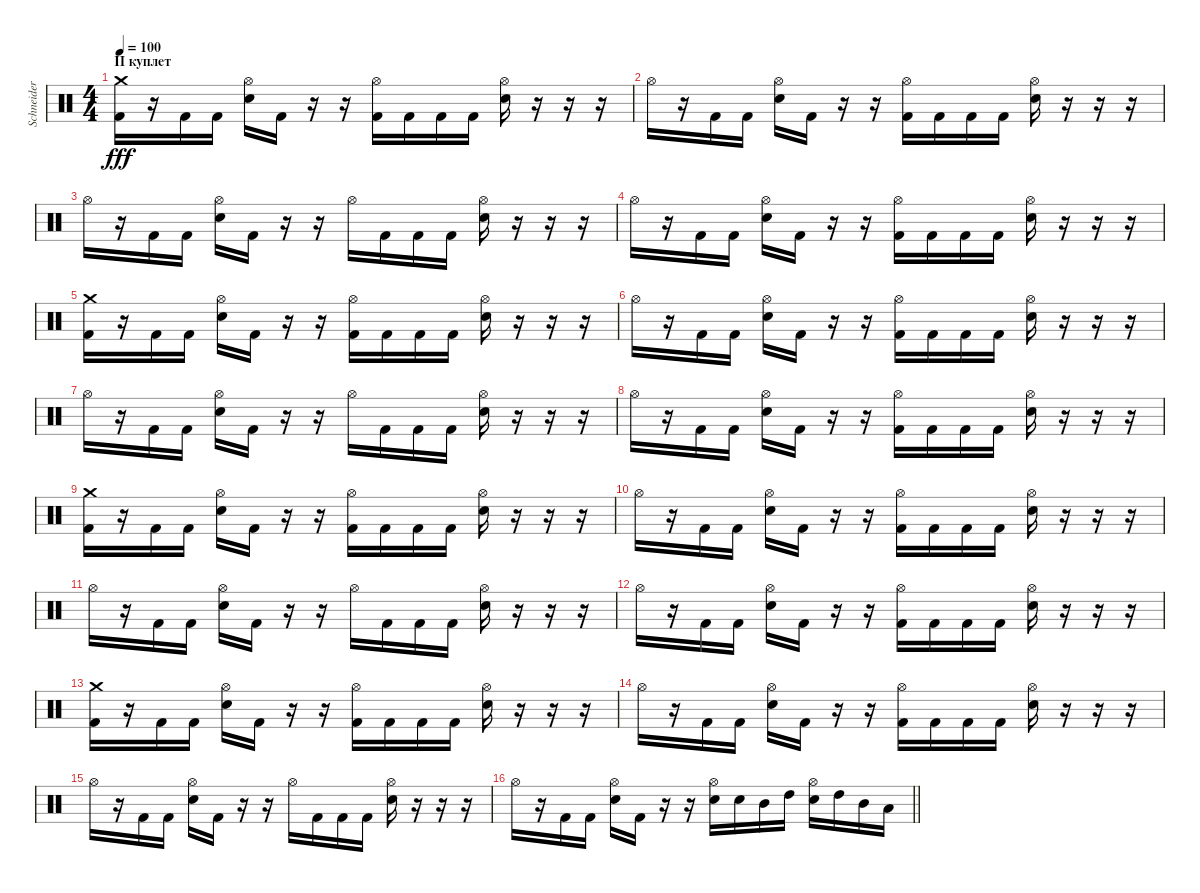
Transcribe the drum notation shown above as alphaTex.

\track ("Schneider" "Schneider") {instrument percussion}
\staff {score}
\articulation defaults
\ts (4 4)
\section ("" "II куплет")
\tempo 100
\clef neutral
\ks c
("Crash medium (hit)" "Kick (hit) 2").16{dy fff} r.16 "Kick (hit) 2".16 "Kick (hit) 2".16 ("Hi-Hat (open)" "Electric Snare (hit)").16 "Kick (hit) 2".16 r.16 r.16 ("Hi-Hat (open)" "Kick (hit) 2").16 "Kick (hit) 2".16 "Kick (hit) 2".16 "Kick (hit) 2".16 ("Hi-Hat (open)" "Electric Snare (hit)").16 r.16 r.16 r.16 |
"Hi-Hat (open)".16 r.16 "Kick (hit) 2".16 "Kick (hit) 2".16 ("Hi-Hat (open)" "Electric Snare (hit)").16 "Kick (hit) 2".16 r.16 r.16 ("Hi-Hat (open)" "Kick (hit) 2").16 "Kick (hit) 2".16 "Kick (hit) 2".16 "Kick (hit) 2".16 ("Hi-Hat (open)" "Electric Snare (hit)").16 r.16 r.16 r.16 |
"Hi-Hat (open)".16 r.16 "Kick (hit) 2".16 "Kick (hit) 2".16 ("Hi-Hat (open)" "Electric Snare (hit)").16 "Kick (hit) 2".16 r.16 r.16 "Hi-Hat (open)".16 "Kick (hit) 2".16 "Kick (hit) 2".16 "Kick (hit) 2".16 ("Hi-Hat (open)" "Electric Snare (hit)").16 r.16 r.16 r.16 |
"Hi-Hat (open)".16 r.16 "Kick (hit) 2".16 "Kick (hit) 2".16 ("Hi-Hat (open)" "Electric Snare (hit)").16 "Kick (hit) 2".16 r.16 r.16 ("Hi-Hat (open)" "Kick (hit) 2").16 "Kick (hit) 2".16 "Kick (hit) 2".16 "Kick (hit) 2".16 ("Hi-Hat (open)" "Electric Snare (hit)").16 r.16 r.16 r.16 |
("Crash medium (hit)" "Kick (hit) 2").16 r.16 "Kick (hit) 2".16 "Kick (hit) 2".16 ("Hi-Hat (open)" "Electric Snare (hit)").16 "Kick (hit) 2".16 r.16 r.16 ("Hi-Hat (open)" "Kick (hit) 2").16 "Kick (hit) 2".16 "Kick (hit) 2".16 "Kick (hit) 2".16 ("Hi-Hat (open)" "Electric Snare (hit)").16 r.16 r.16 r.16 |
"Hi-Hat (open)".16 r.16 "Kick (hit) 2".16 "Kick (hit) 2".16 ("Hi-Hat (open)" "Electric Snare (hit)").16 "Kick (hit) 2".16 r.16 r.16 ("Hi-Hat (open)" "Kick (hit) 2").16 "Kick (hit) 2".16 "Kick (hit) 2".16 "Kick (hit) 2".16 ("Hi-Hat (open)" "Electric Snare (hit)").16 r.16 r.16 r.16 |
"Hi-Hat (open)".16 r.16 "Kick (hit) 2".16 "Kick (hit) 2".16 ("Hi-Hat (open)" "Electric Snare (hit)").16 "Kick (hit) 2".16 r.16 r.16 "Hi-Hat (open)".16 "Kick (hit) 2".16 "Kick (hit) 2".16 "Kick (hit) 2".16 ("Hi-Hat (open)" "Electric Snare (hit)").16 r.16 r.16 r.16 |
"Hi-Hat (open)".16 r.16 "Kick (hit) 2".16 "Kick (hit) 2".16 ("Hi-Hat (open)" "Electric Snare (hit)").16 "Kick (hit) 2".16 r.16 r.16 ("Hi-Hat (open)" "Kick (hit) 2").16 "Kick (hit) 2".16 "Kick (hit) 2".16 "Kick (hit) 2".16 ("Hi-Hat (open)" "Electric Snare (hit)").16 r.16 r.16 r.16 |
("Crash medium (hit)" "Kick (hit) 2").16 r.16 "Kick (hit) 2".16 "Kick (hit) 2".16 ("Hi-Hat (open)" "Electric Snare (hit)").16 "Kick (hit) 2".16 r.16 r.16 ("Hi-Hat (open)" "Kick (hit) 2").16 "Kick (hit) 2".16 "Kick (hit) 2".16 "Kick (hit) 2".16 ("Hi-Hat (open)" "Electric Snare (hit)").16 r.16 r.16 r.16 |
"Hi-Hat (open)".16 r.16 "Kick (hit) 2".16 "Kick (hit) 2".16 ("Hi-Hat (open)" "Electric Snare (hit)").16 "Kick (hit) 2".16 r.16 r.16 ("Hi-Hat (open)" "Kick (hit) 2").16 "Kick (hit) 2".16 "Kick (hit) 2".16 "Kick (hit) 2".16 ("Hi-Hat (open)" "Electric Snare (hit)").16 r.16 r.16 r.16 |
"Hi-Hat (open)".16 r.16 "Kick (hit) 2".16 "Kick (hit) 2".16 ("Hi-Hat (open)" "Electric Snare (hit)").16 "Kick (hit) 2".16 r.16 r.16 "Hi-Hat (open)".16 "Kick (hit) 2".16 "Kick (hit) 2".16 "Kick (hit) 2".16 ("Hi-Hat (open)" "Electric Snare (hit)").16 r.16 r.16 r.16 |
"Hi-Hat (open)".16 r.16 "Kick (hit) 2".16 "Kick (hit) 2".16 ("Hi-Hat (open)" "Electric Snare (hit)").16 "Kick (hit) 2".16 r.16 r.16 ("Hi-Hat (open)" "Kick (hit) 2").16 "Kick (hit) 2".16 "Kick (hit) 2".16 "Kick (hit) 2".16 ("Hi-Hat (open)" "Electric Snare (hit)").16 r.16 r.16 r.16 |
("Crash medium (hit)" "Kick (hit) 2").16 r.16 "Kick (hit) 2".16 "Kick (hit) 2".16 ("Hi-Hat (open)" "Electric Snare (hit)").16 "Kick (hit) 2".16 r.16 r.16 ("Hi-Hat (open)" "Kick (hit) 2").16 "Kick (hit) 2".16 "Kick (hit) 2".16 "Kick (hit) 2".16 ("Hi-Hat (open)" "Electric Snare (hit)").16 r.16 r.16 r.16 |
"Hi-Hat (open)".16 r.16 "Kick (hit) 2".16 "Kick (hit) 2".16 ("Hi-Hat (open)" "Electric Snare (hit)").16 "Kick (hit) 2".16 r.16 r.16 ("Hi-Hat (open)" "Kick (hit) 2").16 "Kick (hit) 2".16 "Kick (hit) 2".16 "Kick (hit) 2".16 ("Hi-Hat (open)" "Electric Snare (hit)").16 r.16 r.16 r.16 |
"Hi-Hat (open)".16 r.16 "Kick (hit) 2".16 "Kick (hit) 2".16 ("Hi-Hat (open)" "Electric Snare (hit)").16 "Kick (hit) 2".16 r.16 r.16 "Hi-Hat (open)".16 "Kick (hit) 2".16 "Kick (hit) 2".16 "Kick (hit) 2".16 ("Hi-Hat (open)" "Electric Snare (hit)").16 r.16 r.16 r.16 |
\barLineRight lightlight "Hi-Hat (open)".16
r.16 "Kick (hit) 2".16 "Kick (hit) 2".16 ("Hi-Hat (open)" "Electric Snare (hit)").16 "Kick (hit) 2".16 r.16 r.16 ("Hi-Hat (open)" "Electric Snare (hit)").16 "Electric Snare (hit)".16 "Mid Tom (hit)".16 "High Tom (hit)".16 ("Hi-Hat (open)" "Electric Snare (hit)").16 "High Tom (hit)".16 "Mid Tom (hit)".16 "Low Tom (hit)".16
